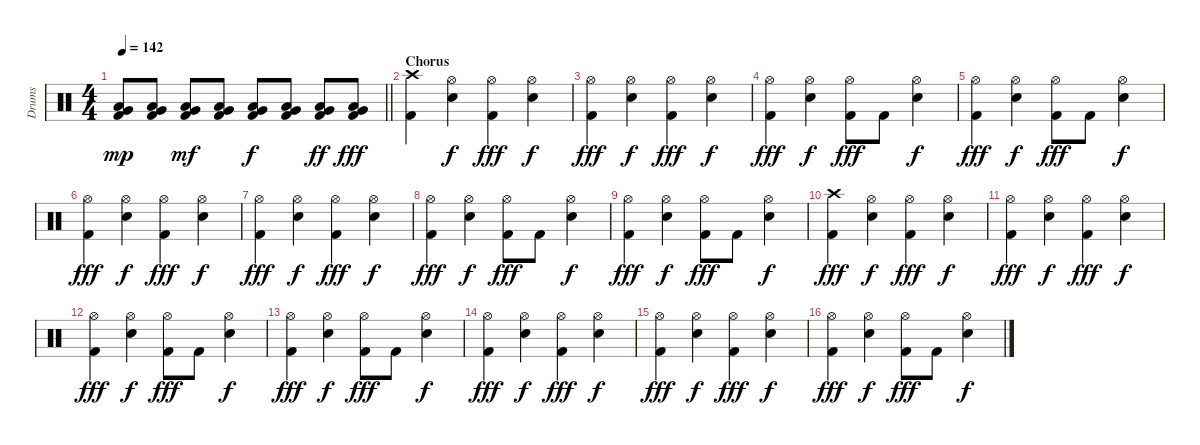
\track ("Drums" "Drums") {instrument percussion}
\staff {score}
\articulation defaults
\ts (4 4)
\tempo 142
\clef neutral
\barLineRight lightlight
\ks c
("Low Floor Tom (hit)" "Very Low Tom (hit)" "Kick (hit) 2").8{dy mp} ("Low Floor Tom (hit)" "Very Low Tom (hit)" "Kick (hit) 2").8 ("Low Floor Tom (hit)" "Very Low Tom (hit)" "Kick (hit) 2").8{dy mf} ("Low Floor Tom (hit)" "Very Low Tom (hit)" "Kick (hit) 2").8 ("Low Floor Tom (hit)" "Very Low Tom (hit)" "Kick (hit) 2").8{dy f} ("Low Floor Tom (hit)" "Very Low Tom (hit)" "Kick (hit) 2").8 ("Low Floor Tom (hit)" "Very Low Tom (hit)" "Kick (hit) 2").8{dy ff} ("Low Floor Tom (hit)" "Very Low Tom (hit)" "Kick (hit) 2").8{dy fff} |
\section ("" "Chorus")
("Crash high (hit)" "Kick (hit) 2").4 ("Hi-Hat (open)" "Snare (hit) 2").4{dy f} ("Hi-Hat (open)" "Kick (hit) 2").4{dy fff} ("Hi-Hat (open)" "Snare (hit) 2").4{dy f} |
("Hi-Hat (open)" "Kick (hit) 2").4{dy fff} ("Hi-Hat (open)" "Snare (hit) 2").4{dy f} ("Hi-Hat (open)" "Kick (hit) 2").4{dy fff} ("Hi-Hat (open)" "Snare (hit) 2").4{dy f} |
("Hi-Hat (open)" "Kick (hit) 2").4{dy fff} ("Hi-Hat (open)" "Snare (hit) 2").4{dy f} ("Hi-Hat (open)" "Kick (hit) 2").8{dy fff} "Kick (hit) 2".8 ("Hi-Hat (open)" "Snare (hit) 2").4{dy f} |
("Hi-Hat (open)" "Kick (hit) 2").4{dy fff} ("Hi-Hat (open)" "Snare (hit) 2").4{dy f} ("Hi-Hat (open)" "Kick (hit) 2").8{dy fff} "Kick (hit) 2".8 ("Hi-Hat (open)" "Snare (hit) 2").4{dy f} |
("Hi-Hat (open)" "Kick (hit) 2").4{dy fff} ("Hi-Hat (open)" "Snare (hit) 2").4{dy f} ("Hi-Hat (open)" "Kick (hit) 2").4{dy fff} ("Hi-Hat (open)" "Snare (hit) 2").4{dy f} |
("Hi-Hat (open)" "Kick (hit) 2").4{dy fff} ("Hi-Hat (open)" "Snare (hit) 2").4{dy f} ("Hi-Hat (open)" "Kick (hit) 2").4{dy fff} ("Hi-Hat (open)" "Snare (hit) 2").4{dy f} |
("Hi-Hat (open)" "Kick (hit) 2").4{dy fff} ("Hi-Hat (open)" "Snare (hit) 2").4{dy f} ("Hi-Hat (open)" "Kick (hit) 2").8{dy fff} "Kick (hit) 2".8 ("Hi-Hat (open)" "Snare (hit) 2").4{dy f} |
("Hi-Hat (open)" "Kick (hit) 2").4{dy fff} ("Hi-Hat (open)" "Snare (hit) 2").4{dy f} ("Hi-Hat (open)" "Kick (hit) 2").8{dy fff} "Kick (hit) 2".8 ("Hi-Hat (open)" "Snare (hit) 2").4{dy f} |
("Crash high (hit)" "Kick (hit) 2").4{dy fff} ("Hi-Hat (open)" "Snare (hit) 2").4{dy f} ("Hi-Hat (open)" "Kick (hit) 2").4{dy fff} ("Hi-Hat (open)" "Snare (hit) 2").4{dy f} |
("Hi-Hat (open)" "Kick (hit) 2").4{dy fff} ("Hi-Hat (open)" "Snare (hit) 2").4{dy f} ("Hi-Hat (open)" "Kick (hit) 2").4{dy fff} ("Hi-Hat (open)" "Snare (hit) 2").4{dy f} |
("Hi-Hat (open)" "Kick (hit) 2").4{dy fff} ("Hi-Hat (open)" "Snare (hit) 2").4{dy f} ("Hi-Hat (open)" "Kick (hit) 2").8{dy fff} "Kick (hit) 2".8 ("Hi-Hat (open)" "Snare (hit) 2").4{dy f} |
("Hi-Hat (open)" "Kick (hit) 2").4{dy fff} ("Hi-Hat (open)" "Snare (hit) 2").4{dy f} ("Hi-Hat (open)" "Kick (hit) 2").8{dy fff} "Kick (hit) 2".8 ("Hi-Hat (open)" "Snare (hit) 2").4{dy f} |
("Hi-Hat (open)" "Kick (hit) 2").4{dy fff} ("Hi-Hat (open)" "Snare (hit) 2").4{dy f} ("Hi-Hat (open)" "Kick (hit) 2").4{dy fff} ("Hi-Hat (open)" "Snare (hit) 2").4{dy f} |
("Hi-Hat (open)" "Kick (hit) 2").4{dy fff} ("Hi-Hat (open)" "Snare (hit) 2").4{dy f} ("Hi-Hat (open)" "Kick (hit) 2").4{dy fff} ("Hi-Hat (open)" "Snare (hit) 2").4{dy f} |
("Hi-Hat (open)" "Kick (hit) 2").4{dy fff} ("Hi-Hat (open)" "Snare (hit) 2").4{dy f} ("Hi-Hat (open)" "Kick (hit) 2").8{dy fff} "Kick (hit) 2".8 ("Hi-Hat (open)" "Snare (hit) 2").4{dy f}
